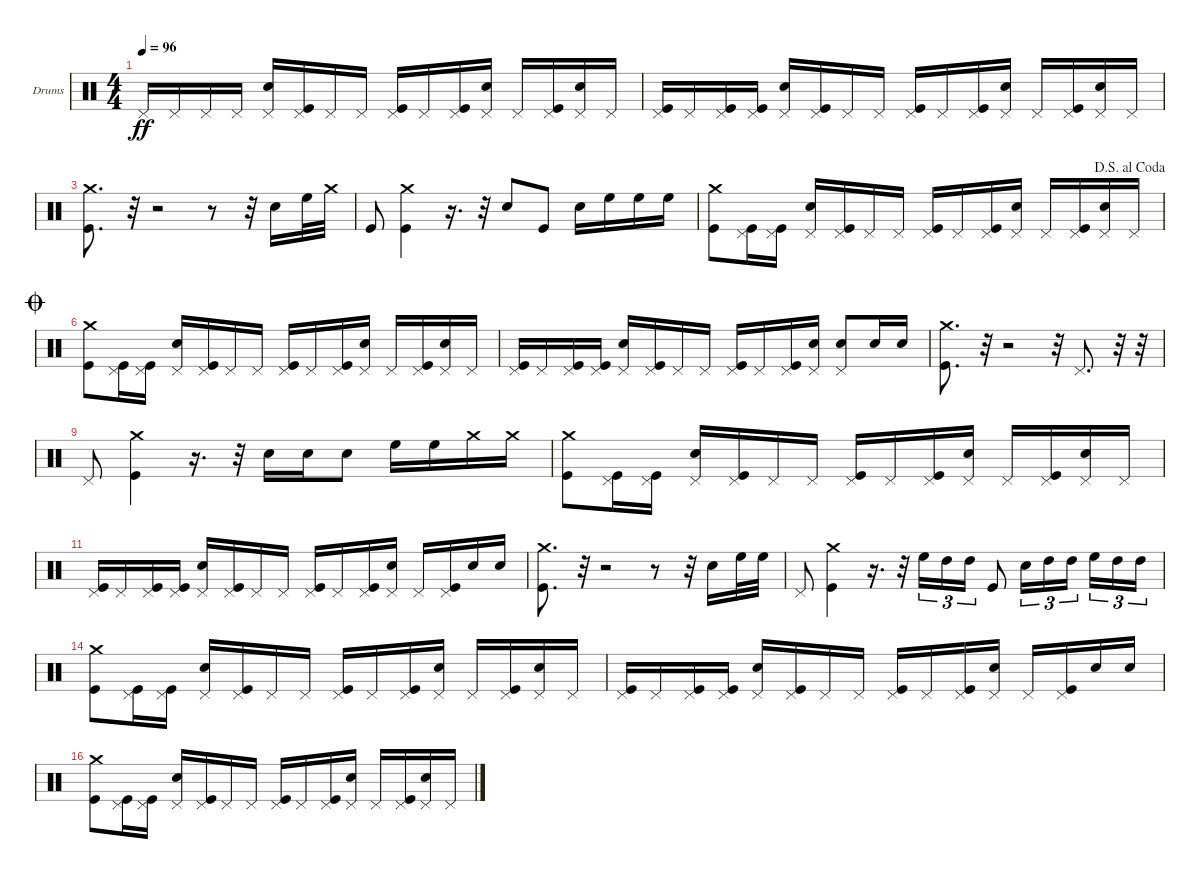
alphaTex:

\bracketExtendMode nobrackets
\firstSystemTrackNameOrientation horizontal
\otherSystemsTrackNameOrientation horizontal
\defaultBarNumberDisplay FirstOfSystem
\track ("Drums" "Drums") {instrument percussion}
\staff {score}
\articulation defaults
\ts (4 4)
\tempo 96
\clef neutral
\ks c "Pedal Hi-Hat (hit)".16{dy ff} "Pedal Hi-Hat (hit)".16 "Pedal Hi-Hat (hit)".16 "Pedal Hi-Hat (hit)".16
("Snare (hit) 2" "Pedal Hi-Hat (hit)").16 ("Kick (hit)" "Pedal Hi-Hat (hit)").16 "Pedal Hi-Hat (hit)".16 "Pedal Hi-Hat (hit)".16 ("Kick (hit)" "Pedal Hi-Hat (hit)").16 "Pedal Hi-Hat (hit)".16 ("Kick (hit)" "Pedal Hi-Hat (hit)").16 ("Snare (hit) 2" "Pedal Hi-Hat (hit)").16 "Pedal Hi-Hat (hit)".16 ("Kick (hit)" "Pedal Hi-Hat (hit)").16 ("Snare (hit) 2" "Pedal Hi-Hat (hit)").16 "Pedal Hi-Hat (hit)".16 |
("Kick (hit)" "Pedal Hi-Hat (hit)").16 "Pedal Hi-Hat (hit)".16 ("Kick (hit)" "Pedal Hi-Hat (hit)").16 ("Kick (hit)" "Pedal Hi-Hat (hit)").16 ("Snare (hit) 2" "Pedal Hi-Hat (hit)").16 ("Kick (hit)" "Pedal Hi-Hat (hit)").16 "Pedal Hi-Hat (hit)".16 "Pedal Hi-Hat (hit)".16 ("Kick (hit)" "Pedal Hi-Hat (hit)").16 "Pedal Hi-Hat (hit)".16 ("Kick (hit)" "Pedal Hi-Hat (hit)").16 ("Snare (hit) 2" "Pedal Hi-Hat (hit)").16 "Pedal Hi-Hat (hit)".16 ("Kick (hit)" "Pedal Hi-Hat (hit)").16 ("Snare (hit) 2" "Pedal Hi-Hat (hit)").16 "Pedal Hi-Hat (hit)".16 |
("Kick (hit)" "Crash medium (hit)").8{d} r.32 r.2 r.8 r.32 "Snare (hit) 2".16 "High Floor Tom (hit)".32 "Crash medium (hit)".32 |
"Kick (hit)".8 ("Kick (hit)" "Crash medium (hit)").4 r.16{d} r.32 "Snare (hit) 2".8 "Kick (hit)".8 "Snare (hit) 2".16 "High Floor Tom (hit)".16 "High Floor Tom (hit)".16 "High Floor Tom (hit)".16 |
\jump dalsegnoalcoda
("Kick (hit)" "Crash medium (hit)").8 ("Kick (hit)" "Pedal Hi-Hat (hit)").16 ("Kick (hit)" "Pedal Hi-Hat (hit)").16 ("Snare (hit) 2" "Pedal Hi-Hat (hit)").16 ("Kick (hit)" "Pedal Hi-Hat (hit)").16 "Pedal Hi-Hat (hit)".16 "Pedal Hi-Hat (hit)".16 ("Kick (hit)" "Pedal Hi-Hat (hit)").16 "Pedal Hi-Hat (hit)".16 ("Kick (hit)" "Pedal Hi-Hat (hit)").16 ("Snare (hit) 2" "Pedal Hi-Hat (hit)").16 "Pedal Hi-Hat (hit)".16 ("Kick (hit)" "Pedal Hi-Hat (hit)").16 ("Snare (hit) 2" "Pedal Hi-Hat (hit)").16 "Pedal Hi-Hat (hit)".16 |
\jump coda
("Kick (hit)" "Crash medium (hit)").8 ("Kick (hit)" "Pedal Hi-Hat (hit)").16 ("Kick (hit)" "Pedal Hi-Hat (hit)").16 ("Snare (hit) 2" "Pedal Hi-Hat (hit)").16 ("Kick (hit)" "Pedal Hi-Hat (hit)").16 "Pedal Hi-Hat (hit)".16 "Pedal Hi-Hat (hit)".16 ("Kick (hit)" "Pedal Hi-Hat (hit)").16 "Pedal Hi-Hat (hit)".16 ("Kick (hit)" "Pedal Hi-Hat (hit)").16 ("Snare (hit) 2" "Pedal Hi-Hat (hit)").16 "Pedal Hi-Hat (hit)".16 ("Kick (hit)" "Pedal Hi-Hat (hit)").16 ("Snare (hit) 2" "Pedal Hi-Hat (hit)").16 "Pedal Hi-Hat (hit)".16 |
("Kick (hit)" "Pedal Hi-Hat (hit)").16 "Pedal Hi-Hat (hit)".16 ("Kick (hit)" "Pedal Hi-Hat (hit)").16 ("Kick (hit)" "Pedal Hi-Hat (hit)").16 ("Snare (hit) 2" "Pedal Hi-Hat (hit)").16 ("Kick (hit)" "Pedal Hi-Hat (hit)").16 "Pedal Hi-Hat (hit)".16 "Pedal Hi-Hat (hit)".16 ("Kick (hit)" "Pedal Hi-Hat (hit)").16 "Pedal Hi-Hat (hit)".16 ("Kick (hit)" "Pedal Hi-Hat (hit)").16 ("Snare (hit) 2" "Pedal Hi-Hat (hit)").16 ("Snare (hit) 2" "Pedal Hi-Hat (hit)").8 "Snare (hit) 2".16 "Snare (hit) 2".16 |
("Kick (hit)" "Crash medium (hit)").8{d} r.32 r.2 r.32 "Pedal Hi-Hat (hit)".8{d} r.32 r.32 |
"Pedal Hi-Hat (hit)".8 ("Kick (hit)" "Crash medium (hit)").4 r.16{d} r.32 "Snare (hit) 2".16 "Snare (hit) 2".16 "Snare (hit) 2".8 "High Floor Tom (hit)".16 "High Floor Tom (hit)".16 "Crash medium (hit)".16 "Crash medium (hit)".16 |
("Kick (hit)" "Crash medium (hit)").8 ("Kick (hit)" "Pedal Hi-Hat (hit)").16 ("Kick (hit)" "Pedal Hi-Hat (hit)").16 ("Snare (hit) 2" "Pedal Hi-Hat (hit)").16 ("Kick (hit)" "Pedal Hi-Hat (hit)").16 "Pedal Hi-Hat (hit)".16 "Pedal Hi-Hat (hit)".16 ("Kick (hit)" "Pedal Hi-Hat (hit)").16 "Pedal Hi-Hat (hit)".16 ("Kick (hit)" "Pedal Hi-Hat (hit)").16 ("Snare (hit) 2" "Pedal Hi-Hat (hit)").16 "Pedal Hi-Hat (hit)".16 ("Kick (hit)" "Pedal Hi-Hat (hit)").16 ("Snare (hit) 2" "Pedal Hi-Hat (hit)").16 "Pedal Hi-Hat (hit)".16 |
("Kick (hit)" "Pedal Hi-Hat (hit)").16 "Pedal Hi-Hat (hit)".16 ("Kick (hit)" "Pedal Hi-Hat (hit)").16 ("Kick (hit)" "Pedal Hi-Hat (hit)").16 ("Snare (hit) 2" "Pedal Hi-Hat (hit)").16 ("Kick (hit)" "Pedal Hi-Hat (hit)").16 "Pedal Hi-Hat (hit)".16 "Pedal Hi-Hat (hit)".16 ("Kick (hit)" "Pedal Hi-Hat (hit)").16 "Pedal Hi-Hat (hit)".16 ("Kick (hit)" "Pedal Hi-Hat (hit)").16 ("Snare (hit) 2" "Pedal Hi-Hat (hit)").16 "Pedal Hi-Hat (hit)".16 ("Kick (hit)" "Pedal Hi-Hat (hit)").16 "Snare (hit) 2".16 "Snare (hit) 2".16 |
("Kick (hit)" "Crash medium (hit)").8{d} r.32 r.2 r.8 r.32 "Snare (hit) 2".16 "High Floor Tom (hit)".32 "High Floor Tom (hit)".32 |
"Pedal Hi-Hat (hit)".8 ("Kick (hit)" "Crash medium (hit)").4 r.16{d} r.32 "High Floor Tom (hit)".16{tu (3 2)} "High Tom (hit)".16{tu (3 2)} "High Tom (hit)".16{tu (3 2)} "Kick (hit)".8 "Snare (hit) 2".16{tu (3 2)} "High Tom (hit)".16{tu (3 2)} "High Tom (hit)".16{tu (3 2)} "High Floor Tom (hit)".16{tu (3 2)} "High Tom (hit)".16{tu (3 2)} "High Tom (hit)".16{tu (3 2)} |
("Kick (hit)" "Crash medium (hit)").8 ("Kick (hit)" "Pedal Hi-Hat (hit)").16 ("Kick (hit)" "Pedal Hi-Hat (hit)").16 ("Snare (hit) 2" "Pedal Hi-Hat (hit)").16 ("Kick (hit)" "Pedal Hi-Hat (hit)").16 "Pedal Hi-Hat (hit)".16 "Pedal Hi-Hat (hit)".16 ("Kick (hit)" "Pedal Hi-Hat (hit)").16 "Pedal Hi-Hat (hit)".16 ("Kick (hit)" "Pedal Hi-Hat (hit)").16 ("Snare (hit) 2" "Pedal Hi-Hat (hit)").16 "Pedal Hi-Hat (hit)".16 ("Kick (hit)" "Pedal Hi-Hat (hit)").16 ("Snare (hit) 2" "Pedal Hi-Hat (hit)").16 "Pedal Hi-Hat (hit)".16 |
("Kick (hit)" "Pedal Hi-Hat (hit)").16 "Pedal Hi-Hat (hit)".16 ("Kick (hit)" "Pedal Hi-Hat (hit)").16 ("Kick (hit)" "Pedal Hi-Hat (hit)").16 ("Snare (hit) 2" "Pedal Hi-Hat (hit)").16 ("Kick (hit)" "Pedal Hi-Hat (hit)").16 "Pedal Hi-Hat (hit)".16 "Pedal Hi-Hat (hit)".16 ("Kick (hit)" "Pedal Hi-Hat (hit)").16 "Pedal Hi-Hat (hit)".16 ("Kick (hit)" "Pedal Hi-Hat (hit)").16 ("Snare (hit) 2" "Pedal Hi-Hat (hit)").16 "Pedal Hi-Hat (hit)".16 ("Kick (hit)" "Pedal Hi-Hat (hit)").16 "Snare (hit) 2".16 "Snare (hit) 2".16 |
("Kick (hit)" "Crash medium (hit)").8 ("Kick (hit)" "Pedal Hi-Hat (hit)").16 ("Kick (hit)" "Pedal Hi-Hat (hit)").16 ("Snare (hit) 2" "Pedal Hi-Hat (hit)").16 ("Kick (hit)" "Pedal Hi-Hat (hit)").16 "Pedal Hi-Hat (hit)".16 "Pedal Hi-Hat (hit)".16 ("Kick (hit)" "Pedal Hi-Hat (hit)").16 "Pedal Hi-Hat (hit)".16 ("Kick (hit)" "Pedal Hi-Hat (hit)").16 ("Snare (hit) 2" "Pedal Hi-Hat (hit)").16 "Pedal Hi-Hat (hit)".16 ("Kick (hit)" "Pedal Hi-Hat (hit)").16 ("Snare (hit) 2" "Pedal Hi-Hat (hit)").16 "Pedal Hi-Hat (hit)".16
